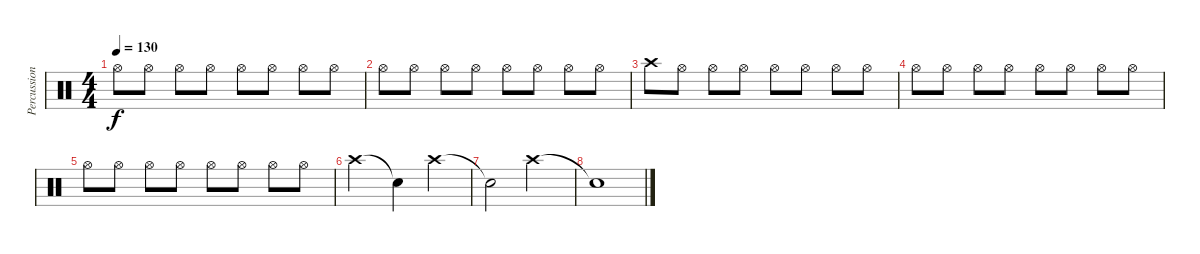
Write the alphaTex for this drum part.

\track ("Percussion" "Percussion") {instrument percussion}
\staff {score}
\articulation defaults
\ts (4 4)
\tempo 130
\clef neutral
\ks c "Hi-Hat (open)".8{dy f} "Hi-Hat (open)".8 "Hi-Hat (open)".8 "Hi-Hat (open)".8 "Hi-Hat (open)".8 "Hi-Hat (open)".8 "Hi-Hat (open)".8 "Hi-Hat (open)".8
|
"Hi-Hat (open)".8 "Hi-Hat (open)".8 "Hi-Hat (open)".8 "Hi-Hat (open)".8 "Hi-Hat (open)".8 "Hi-Hat (open)".8 "Hi-Hat (open)".8 "Hi-Hat (open)".8 |
"Crash high (hit)".8 "Hi-Hat (open)".8 "Hi-Hat (open)".8 "Hi-Hat (open)".8 "Hi-Hat (open)".8 "Hi-Hat (open)".8 "Hi-Hat (open)".8 "Hi-Hat (open)".8 |
"Hi-Hat (open)".8 "Hi-Hat (open)".8 "Hi-Hat (open)".8 "Hi-Hat (open)".8 "Hi-Hat (open)".8 "Hi-Hat (open)".8 "Hi-Hat (open)".8 "Hi-Hat (open)".8 |
"Hi-Hat (open)".8 "Hi-Hat (open)".8 "Hi-Hat (open)".8 "Hi-Hat (open)".8 "Hi-Hat (open)".8 "Hi-Hat (open)".8 "Hi-Hat (open)".8 "Hi-Hat (open)".8 |
"Crash high (hit)".2 "Snare (hit)"{t}.4 "Crash high (hit)".4 |
"Snare (hit)"{t}.2 "Crash high (hit)".2 |
"Snare (hit)"{t}.1
